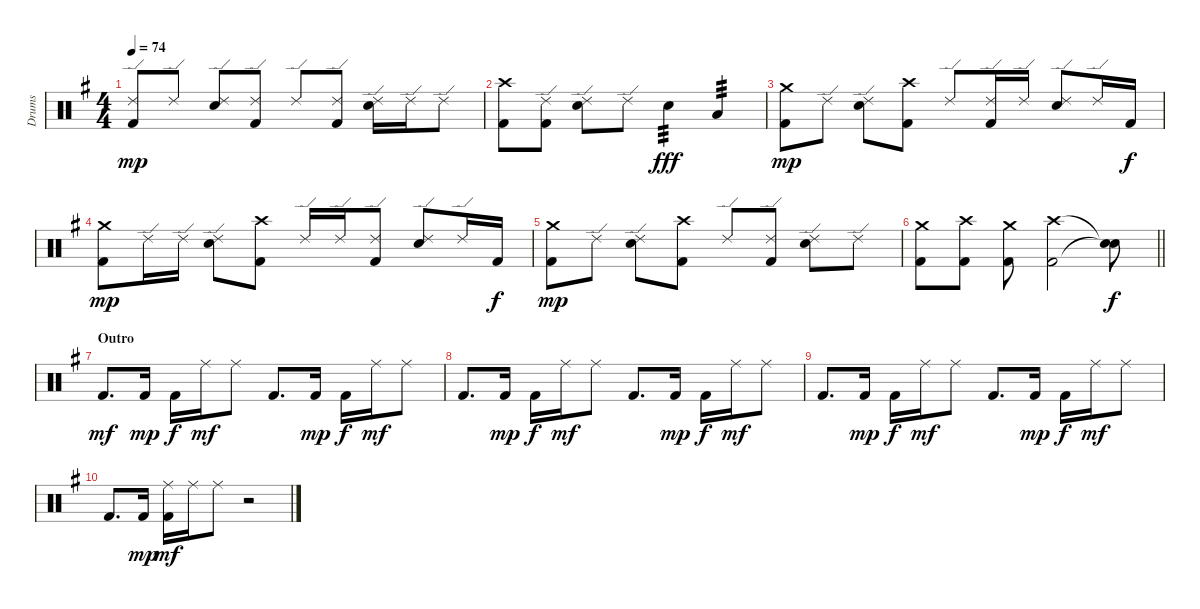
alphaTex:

\track ("Drums" "Drums") {instrument percussion}
\staff {score}
\articulation defaults
\ts (4 4)
\tempo 74
\clef neutral
\ks g
("Kick (hit) 2" "Ride (edge) 2").8{dy mp} "Ride (edge) 2".8 ("Electric Snare (hit)" "Ride (edge) 2").8 ("Kick (hit) 2" "Ride (edge) 2").8 "Ride (edge) 2".8 ("Kick (hit) 2" "Ride (edge) 2").8 ("Electric Snare (hit)" "Ride (edge) 2").16 "Ride (edge) 2".16 "Ride (edge) 2".8 |
("Kick (hit) 2" "Crash high (hit)").8 ("Kick (hit) 2" "Ride (edge) 2").8 ("Electric Snare (hit)" "Ride (edge) 2").8 "Ride (edge) 2".8 "Electric Snare (hit)".4{tp 3 dy fff} "Low Tom (hit)".4{tp 3} |
("Kick (hit) 2" "Crash medium (hit)").8{dy mp} "Ride (edge) 2".8 ("Electric Snare (hit)" "Ride (edge) 2").8 ("Kick (hit) 2" "Crash high (hit)").8 "Ride (edge) 2".8 ("Kick (hit) 2" "Ride (edge) 2").16 "Ride (edge) 2".16 ("Electric Snare (hit)" "Ride (edge) 2").8 "Ride (edge) 2".16 "Kick (hit) 2".16{dy f} |
("Kick (hit) 2" "Crash medium (hit)").8{dy mp} "Ride (edge) 2".16 "Ride (edge) 2".16 ("Electric Snare (hit)" "Ride (edge) 2").8 ("Kick (hit) 2" "Crash high (hit)").8 "Ride (edge) 2".16 "Ride (edge) 2".16 ("Kick (hit) 2" "Ride (edge) 2").8 ("Electric Snare (hit)" "Ride (edge) 2").8 "Ride (edge) 2".16 "Kick (hit) 2".16{dy f} |
("Kick (hit) 2" "Crash medium (hit)").8{dy mp} "Ride (edge) 2".8 ("Electric Snare (hit)" "Ride (edge) 2").8 ("Kick (hit) 2" "Crash high (hit)").8 "Ride (edge) 2".8 ("Kick (hit) 2" "Ride (edge) 2").8 ("Electric Snare (hit)" "Ride (edge) 2").8 "Ride (edge) 2".8 |
\barLineRight lightlight
("Kick (hit) 2" "Crash medium (hit)").8 ("Kick (hit) 2" "Crash high (hit)").8 ("Kick (hit) 2" "Crash medium (hit)").8 ("Kick (hit) 2" "Crash high (hit)").2 ("Snare (hit)"{t} "Snare (hit)"{t}).8{dy f} |
\section ("" "Outro")
"Kick (hit) 2".8{d dy mf} "Kick (hit) 2".16{dy mp} "Kick (hit) 2".16{dy f} "Ride (middle)".16{dy mf} "Ride (middle)".8 "Kick (hit) 2".8{d} "Kick (hit) 2".16{dy mp} "Kick (hit) 2".16{dy f} "Ride (middle)".16{dy mf} "Ride (middle)".8 |
"Kick (hit) 2".8{d} "Kick (hit) 2".16{dy mp} "Kick (hit) 2".16{dy f} "Ride (middle)".16{dy mf} "Ride (middle)".8 "Kick (hit) 2".8{d} "Kick (hit) 2".16{dy mp} "Kick (hit) 2".16{dy f} "Ride (middle)".16{dy mf} "Ride (middle)".8 |
"Kick (hit) 2".8{d} "Kick (hit) 2".16{dy mp} "Kick (hit) 2".16{dy f} "Ride (middle)".16{dy mf} "Ride (middle)".8 "Kick (hit) 2".8{d} "Kick (hit) 2".16{dy mp} "Kick (hit) 2".16{dy f} "Ride (middle)".16{dy mf} "Ride (middle)".8 |
"Kick (hit) 2".8{d} "Kick (hit) 2".16{dy mp} ("Kick (hit) 2" "Ride (middle)").16{dy mf} "Ride (middle)".16 "Ride (middle)".8 r.2
